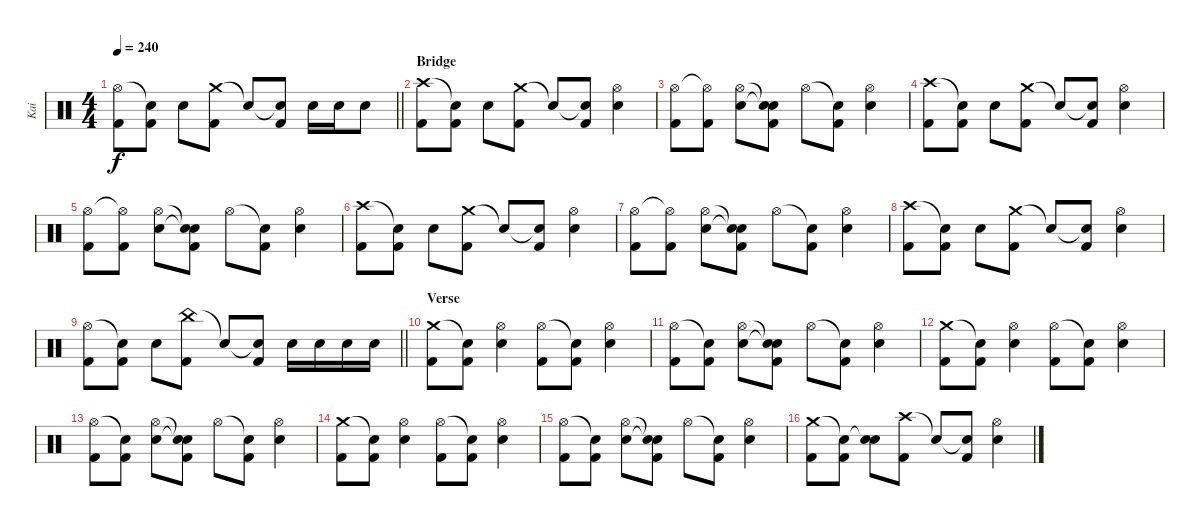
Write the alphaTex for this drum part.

\track ("Kai" "Kai") {instrument percussion}
\staff {score}
\articulation defaults
\ts (4 4)
\tempo 240
\clef neutral
\barLineRight lightlight
\ks c
("Hi-Hat (open)" "Kick (hit) 2").8{dy f} ("Snare (hit)"{t} "Kick (hit) 2").8 "Snare (hit) 2".8 ("Crash medium (hit)" "Kick (hit) 2").8 "Snare (hit)"{t}.8 ("Snare (hit)"{t} "Kick (hit) 2").8 "Snare (hit) 2".16 "Snare (hit) 2".16 "Snare (hit) 2".8 |
\section ("" "Bridge")
("Crash high (hit)" "Kick (hit) 2").8 ("Snare (hit)"{t} "Kick (hit) 2").8 "Snare (hit) 2".8 ("Crash medium (hit)" "Kick (hit) 2").8 "Snare (hit)"{t}.8 ("Snare (hit)"{t} "Kick (hit) 2").8 ("Hi-Hat (open)" "Snare (hit) 2").4 |
("Hi-Hat (open)" "Kick (hit) 2").8 ("Hi-Hat (open)"{t} "Kick (hit) 2").8 ("Hi-Hat (open)" "Snare (hit) 2").8 ("Snare (hit)"{t} "Snare (hit)"{t} "Kick (hit) 2").8 "Hi-Hat (open)".8 ("Snare (hit)"{t} "Kick (hit) 2").8 ("Hi-Hat (open)" "Snare (hit) 2").4 |
("Crash high (hit)" "Kick (hit) 2").8 ("Snare (hit)"{t} "Kick (hit) 2").8 "Snare (hit) 2".8 ("Crash medium (hit)" "Kick (hit) 2").8 "Snare (hit)"{t}.8 ("Snare (hit)"{t} "Kick (hit) 2").8 ("Hi-Hat (open)" "Snare (hit) 2").4 |
("Hi-Hat (open)" "Kick (hit) 2").8 ("Hi-Hat (open)"{t} "Kick (hit) 2").8 ("Hi-Hat (open)" "Snare (hit) 2").8 ("Snare (hit)"{t} "Snare (hit)"{t} "Kick (hit) 2").8 "Hi-Hat (open)".8 ("Snare (hit)"{t} "Kick (hit) 2").8 ("Hi-Hat (open)" "Snare (hit) 2").4 |
("Crash high (hit)" "Kick (hit) 2").8 ("Snare (hit)"{t} "Kick (hit) 2").8 "Snare (hit) 2".8 ("Crash medium (hit)" "Kick (hit) 2").8 "Snare (hit)"{t}.8 ("Snare (hit)"{t} "Kick (hit) 2").8 ("Hi-Hat (open)" "Snare (hit) 2").4 |
("Hi-Hat (open)" "Kick (hit) 2").8 ("Hi-Hat (open)"{t} "Kick (hit) 2").8 ("Hi-Hat (open)" "Snare (hit) 2").8 ("Snare (hit)"{t} "Snare (hit)"{t} "Kick (hit) 2").8 "Hi-Hat (open)".8 ("Snare (hit)"{t} "Kick (hit) 2").8 ("Hi-Hat (open)" "Snare (hit) 2").4 |
("Crash high (hit)" "Kick (hit) 2").8 ("Snare (hit)"{t} "Kick (hit) 2").8 "Snare (hit) 2".8 ("Crash medium (hit)" "Kick (hit) 2").8 "Snare (hit)"{t}.8 ("Snare (hit)"{t} "Kick (hit) 2").8 ("Hi-Hat (open)" "Snare (hit) 2").4 |
\barLineRight lightlight
("Hi-Hat (open)" "Kick (hit) 2").8 ("Snare (hit)"{t} "Kick (hit) 2").8 "Snare (hit) 2".8 ("China (hit)" "Kick (hit) 2").8 "Snare (hit)"{t}.8 ("Snare (hit)"{t} "Kick (hit) 2").8 "Snare (hit) 2".16 "Snare (hit) 2".16 "Snare (hit) 2".16 "Snare (hit) 2".16 |
\section ("" "Verse")
("Crash medium (hit)" "Kick (hit) 2").8 ("Snare (hit)"{t} "Kick (hit) 2").8 ("Hi-Hat (open)" "Snare (hit) 2").4 ("Hi-Hat (open)" "Kick (hit) 2").8 ("Snare (hit)"{t} "Kick (hit) 2").8 ("Hi-Hat (open)" "Snare (hit) 2").4 |
("Hi-Hat (open)" "Kick (hit) 2").8 ("Snare (hit)"{t} "Kick (hit) 2").8 ("Hi-Hat (open)" "Snare (hit) 2").8 ("Snare (hit)"{t} "Snare (hit)"{t} "Kick (hit) 2").8 "Hi-Hat (open)".8 ("Snare (hit)"{t} "Kick (hit) 2").8 ("Hi-Hat (open)" "Snare (hit) 2").4 |
("Crash medium (hit)" "Kick (hit) 2").8 ("Snare (hit)"{t} "Kick (hit) 2").8 ("Hi-Hat (open)" "Snare (hit) 2").4 ("Hi-Hat (open)" "Kick (hit) 2").8 ("Snare (hit)"{t} "Kick (hit) 2").8 ("Hi-Hat (open)" "Snare (hit) 2").4 |
("Hi-Hat (open)" "Kick (hit) 2").8 ("Snare (hit)"{t} "Kick (hit) 2").8 ("Hi-Hat (open)" "Snare (hit) 2").8 ("Snare (hit)"{t} "Snare (hit)"{t} "Kick (hit) 2").8 "Hi-Hat (open)".8 ("Snare (hit)"{t} "Kick (hit) 2").8 ("Hi-Hat (open)" "Snare (hit) 2").4 |
("Crash medium (hit)" "Kick (hit) 2").8 ("Snare (hit)"{t} "Kick (hit) 2").8 ("Hi-Hat (open)" "Snare (hit) 2").4 ("Hi-Hat (open)" "Kick (hit) 2").8 ("Snare (hit)"{t} "Kick (hit) 2").8 ("Hi-Hat (open)" "Snare (hit) 2").4 |
("Hi-Hat (open)" "Kick (hit) 2").8 ("Snare (hit)"{t} "Kick (hit) 2").8 ("Hi-Hat (open)" "Snare (hit) 2").8 ("Snare (hit)"{t} "Snare (hit)"{t} "Kick (hit) 2").8 "Hi-Hat (open)".8 ("Snare (hit)"{t} "Kick (hit) 2").8 ("Hi-Hat (open)" "Snare (hit) 2").4 |
("Crash medium (hit)" "Kick (hit) 2").8 ("Snare (hit)"{t} "Kick (hit) 2").8 ("Snare (hit)"{t} "Snare (hit) 2").8 ("Crash high (hit)" "Kick (hit) 2").8 "Snare (hit)"{t}.8 ("Snare (hit)"{t} "Kick (hit) 2").8 ("Hi-Hat (open)" "Snare (hit) 2").4
